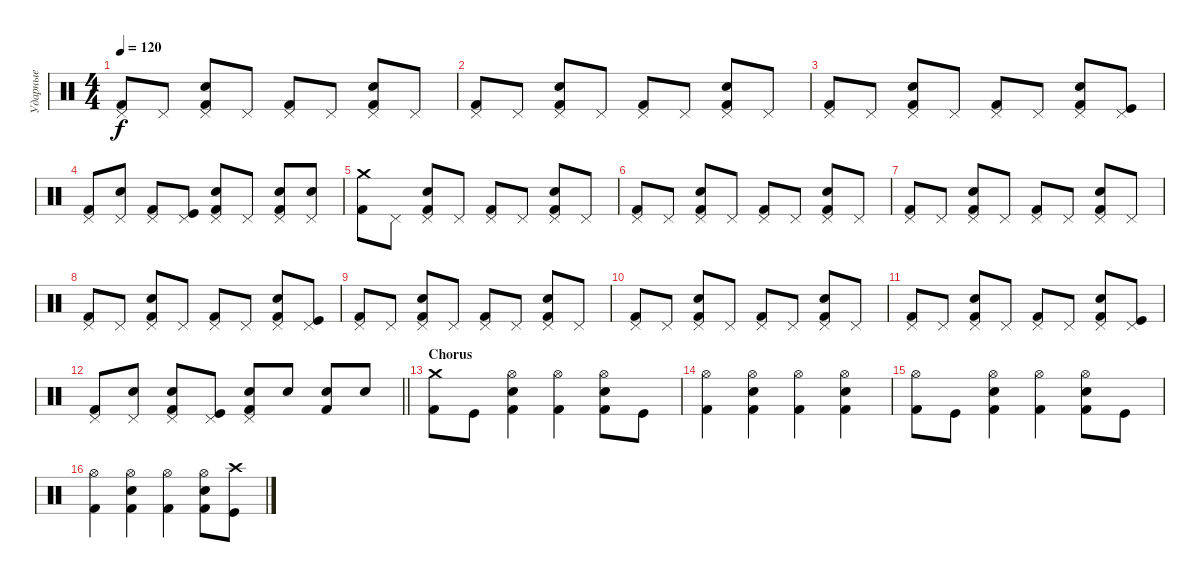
\track ("Ударные" "Ударные") {instrument percussion}
\staff {score}
\articulation defaults
\ts (4 4)
\tempo 120
\clef neutral
\ks c
("Pedal Hi-Hat (hit)" "Kick (hit) 2").8{dy f} "Pedal Hi-Hat (hit)".8 ("Pedal Hi-Hat (hit)" "Electric Snare (hit)" "Kick (hit) 2").8 "Pedal Hi-Hat (hit)".8 ("Pedal Hi-Hat (hit)" "Kick (hit) 2").8 "Pedal Hi-Hat (hit)".8 ("Pedal Hi-Hat (hit)" "Electric Snare (hit)" "Kick (hit) 2").8 "Pedal Hi-Hat (hit)".8 |
("Pedal Hi-Hat (hit)" "Kick (hit) 2").8 "Pedal Hi-Hat (hit)".8 ("Pedal Hi-Hat (hit)" "Electric Snare (hit)" "Kick (hit) 2").8 "Pedal Hi-Hat (hit)".8 ("Pedal Hi-Hat (hit)" "Kick (hit) 2").8 "Pedal Hi-Hat (hit)".8 ("Pedal Hi-Hat (hit)" "Electric Snare (hit)" "Kick (hit) 2").8 "Pedal Hi-Hat (hit)".8 |
("Pedal Hi-Hat (hit)" "Kick (hit) 2").8 "Pedal Hi-Hat (hit)".8 ("Pedal Hi-Hat (hit)" "Electric Snare (hit)" "Kick (hit) 2").8 "Pedal Hi-Hat (hit)".8 ("Pedal Hi-Hat (hit)" "Kick (hit) 2").8 "Pedal Hi-Hat (hit)".8 ("Pedal Hi-Hat (hit)" "Electric Snare (hit)" "Kick (hit) 2").8 ("Pedal Hi-Hat (hit)" "Kick (hit)").8 |
("Pedal Hi-Hat (hit)" "Kick (hit) 2").8 ("Pedal Hi-Hat (hit)" "Electric Snare (hit)").8 ("Pedal Hi-Hat (hit)" "Kick (hit) 2").8 ("Pedal Hi-Hat (hit)" "Kick (hit)").8 ("Pedal Hi-Hat (hit)" "Electric Snare (hit)" "Kick (hit) 2").8 "Pedal Hi-Hat (hit)".8 ("Pedal Hi-Hat (hit)" "Electric Snare (hit)" "Kick (hit) 2").8 ("Pedal Hi-Hat (hit)" "Electric Snare (hit)").8 |
("Crash medium (hit)" "Kick (hit) 2").8 "Pedal Hi-Hat (hit)".8 ("Pedal Hi-Hat (hit)" "Electric Snare (hit)" "Kick (hit) 2").8 "Pedal Hi-Hat (hit)".8 ("Pedal Hi-Hat (hit)" "Kick (hit) 2").8 "Pedal Hi-Hat (hit)".8 ("Pedal Hi-Hat (hit)" "Electric Snare (hit)" "Kick (hit) 2").8 "Pedal Hi-Hat (hit)".8 |
("Pedal Hi-Hat (hit)" "Kick (hit) 2").8 "Pedal Hi-Hat (hit)".8 ("Pedal Hi-Hat (hit)" "Electric Snare (hit)" "Kick (hit) 2").8 "Pedal Hi-Hat (hit)".8 ("Pedal Hi-Hat (hit)" "Kick (hit) 2").8 "Pedal Hi-Hat (hit)".8 ("Pedal Hi-Hat (hit)" "Electric Snare (hit)" "Kick (hit) 2").8 "Pedal Hi-Hat (hit)".8 |
("Pedal Hi-Hat (hit)" "Kick (hit) 2").8 "Pedal Hi-Hat (hit)".8 ("Pedal Hi-Hat (hit)" "Electric Snare (hit)" "Kick (hit) 2").8 "Pedal Hi-Hat (hit)".8 ("Pedal Hi-Hat (hit)" "Kick (hit) 2").8 "Pedal Hi-Hat (hit)".8 ("Pedal Hi-Hat (hit)" "Electric Snare (hit)" "Kick (hit) 2").8 "Pedal Hi-Hat (hit)".8 |
("Pedal Hi-Hat (hit)" "Kick (hit) 2").8 "Pedal Hi-Hat (hit)".8 ("Pedal Hi-Hat (hit)" "Electric Snare (hit)" "Kick (hit) 2").8 "Pedal Hi-Hat (hit)".8 ("Pedal Hi-Hat (hit)" "Kick (hit) 2").8 "Pedal Hi-Hat (hit)".8 ("Pedal Hi-Hat (hit)" "Electric Snare (hit)" "Kick (hit) 2").8 ("Pedal Hi-Hat (hit)" "Kick (hit)").8 |
("Pedal Hi-Hat (hit)" "Kick (hit) 2").8 "Pedal Hi-Hat (hit)".8 ("Pedal Hi-Hat (hit)" "Electric Snare (hit)" "Kick (hit) 2").8 "Pedal Hi-Hat (hit)".8 ("Pedal Hi-Hat (hit)" "Kick (hit) 2").8 "Pedal Hi-Hat (hit)".8 ("Pedal Hi-Hat (hit)" "Electric Snare (hit)" "Kick (hit) 2").8 "Pedal Hi-Hat (hit)".8 |
("Pedal Hi-Hat (hit)" "Kick (hit) 2").8 "Pedal Hi-Hat (hit)".8 ("Pedal Hi-Hat (hit)" "Electric Snare (hit)" "Kick (hit) 2").8 "Pedal Hi-Hat (hit)".8 ("Pedal Hi-Hat (hit)" "Kick (hit) 2").8 "Pedal Hi-Hat (hit)".8 ("Pedal Hi-Hat (hit)" "Electric Snare (hit)" "Kick (hit) 2").8 "Pedal Hi-Hat (hit)".8 |
("Pedal Hi-Hat (hit)" "Kick (hit) 2").8 "Pedal Hi-Hat (hit)".8 ("Pedal Hi-Hat (hit)" "Electric Snare (hit)" "Kick (hit) 2").8 "Pedal Hi-Hat (hit)".8 ("Pedal Hi-Hat (hit)" "Kick (hit) 2").8 "Pedal Hi-Hat (hit)".8 ("Pedal Hi-Hat (hit)" "Electric Snare (hit)" "Kick (hit) 2").8 ("Pedal Hi-Hat (hit)" "Kick (hit)").8 |
\barLineRight lightlight
("Pedal Hi-Hat (hit)" "Kick (hit) 2").8 ("Pedal Hi-Hat (hit)" "Electric Snare (hit)").8 ("Pedal Hi-Hat (hit)" "Electric Snare (hit)" "Kick (hit) 2").8 ("Pedal Hi-Hat (hit)" "Kick (hit)").8 ("Pedal Hi-Hat (hit)" "Electric Snare (hit)" "Kick (hit) 2").8 "Electric Snare (hit)".8 ("Electric Snare (hit)" "Kick (hit) 2").8 "Electric Snare (hit)".8 |
\section ("" "Chorus")
("Crash medium (hit)" "Kick (hit) 2").8 "Kick (hit)".8 ("Hi-Hat (open)" "Electric Snare (hit)" "Kick (hit) 2").4 ("Hi-Hat (open)" "Kick (hit) 2").4 ("Hi-Hat (open)" "Electric Snare (hit)" "Kick (hit) 2").8 "Kick (hit)".8 |
("Hi-Hat (open)" "Kick (hit) 2").4 ("Hi-Hat (open)" "Electric Snare (hit)" "Kick (hit) 2").4 ("Hi-Hat (open)" "Kick (hit) 2").4 ("Hi-Hat (open)" "Electric Snare (hit)" "Kick (hit) 2").4 |
("Hi-Hat (open)" "Kick (hit) 2").8 "Kick (hit)".8 ("Hi-Hat (open)" "Electric Snare (hit)" "Kick (hit) 2").4 ("Hi-Hat (open)" "Kick (hit) 2").4 ("Hi-Hat (open)" "Electric Snare (hit)" "Kick (hit) 2").8 "Kick (hit)".8 |
("Hi-Hat (open)" "Kick (hit) 2").4 ("Hi-Hat (open)" "Electric Snare (hit)" "Kick (hit) 2").4 ("Hi-Hat (open)" "Kick (hit) 2").4 ("Hi-Hat (open)" "Electric Snare (hit)" "Kick (hit) 2").8 ("Crash high (hit)" "Kick (hit)").8
